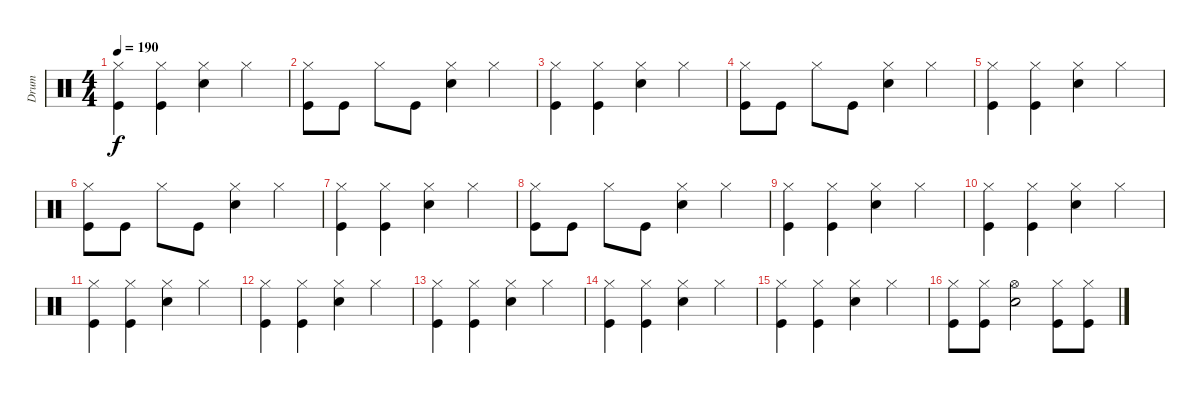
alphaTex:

\track ("Drum" "Drum") {instrument percussion}
\staff {score}
\articulation defaults
\ts (4 4)
\tempo 190
\clef neutral
\ks c
("Kick (hit)" "Hi-Hat (closed)").4{dy f} ("Hi-Hat (closed)" "Kick (hit)").4 ("Hi-Hat (closed)" "Snare (hit) 2").4 "Hi-Hat (closed)".4 |
("Kick (hit)" "Hi-Hat (closed)").8 "Kick (hit)".8 "Hi-Hat (closed)".8 "Kick (hit)".8 ("Snare (hit) 2" "Hi-Hat (closed)").4 "Hi-Hat (closed)".4 |
("Kick (hit)" "Hi-Hat (closed)").4 ("Hi-Hat (closed)" "Kick (hit)").4 ("Hi-Hat (closed)" "Snare (hit) 2").4 "Hi-Hat (closed)".4 |
("Kick (hit)" "Hi-Hat (closed)").8 "Kick (hit)".8 "Hi-Hat (closed)".8 "Kick (hit)".8 ("Snare (hit) 2" "Hi-Hat (closed)").4 "Hi-Hat (closed)".4 |
("Kick (hit)" "Hi-Hat (closed)").4 ("Hi-Hat (closed)" "Kick (hit)").4 ("Hi-Hat (closed)" "Snare (hit) 2").4 "Hi-Hat (closed)".4 |
("Kick (hit)" "Hi-Hat (closed)").8 "Kick (hit)".8 "Hi-Hat (closed)".8 "Kick (hit)".8 ("Snare (hit) 2" "Hi-Hat (closed)").4 "Hi-Hat (closed)".4 |
("Kick (hit)" "Hi-Hat (closed)").4 ("Hi-Hat (closed)" "Kick (hit)").4 ("Hi-Hat (closed)" "Snare (hit) 2").4 "Hi-Hat (closed)".4 |
("Kick (hit)" "Hi-Hat (closed)").8 "Kick (hit)".8 "Hi-Hat (closed)".8 "Kick (hit)".8 ("Snare (hit) 2" "Hi-Hat (closed)").4 "Hi-Hat (closed)".4 |
("Kick (hit)" "Hi-Hat (closed)").4 ("Hi-Hat (closed)" "Kick (hit)").4 ("Hi-Hat (closed)" "Snare (hit) 2").4 "Hi-Hat (closed)".4 |
("Kick (hit)" "Hi-Hat (closed)").4 ("Hi-Hat (closed)" "Kick (hit)").4 ("Hi-Hat (closed)" "Snare (hit) 2").4 "Hi-Hat (closed)".4 |
("Kick (hit)" "Hi-Hat (closed)").4 ("Hi-Hat (closed)" "Kick (hit)").4 ("Hi-Hat (closed)" "Snare (hit) 2").4 "Hi-Hat (closed)".4 |
("Kick (hit)" "Hi-Hat (closed)").4 ("Hi-Hat (closed)" "Kick (hit)").4 ("Hi-Hat (closed)" "Snare (hit) 2").4 "Hi-Hat (closed)".4 |
("Kick (hit)" "Hi-Hat (closed)").4 ("Hi-Hat (closed)" "Kick (hit)").4 ("Hi-Hat (closed)" "Snare (hit) 2").4 "Hi-Hat (closed)".4 |
("Kick (hit)" "Hi-Hat (closed)").4 ("Hi-Hat (closed)" "Kick (hit)").4 ("Hi-Hat (closed)" "Snare (hit) 2").4 "Hi-Hat (closed)".4 |
("Kick (hit)" "Hi-Hat (closed)").4 ("Hi-Hat (closed)" "Kick (hit)").4 ("Hi-Hat (closed)" "Snare (hit) 2").4 "Hi-Hat (closed)".4 |
("Kick (hit)" "Hi-Hat (closed)").8 ("Hi-Hat (closed)" "Kick (hit)").8 ("Hi-Hat (open)" "Snare (hit) 2").2 ("Kick (hit)" "Hi-Hat (closed)").8 ("Hi-Hat (closed)" "Kick (hit)").8
